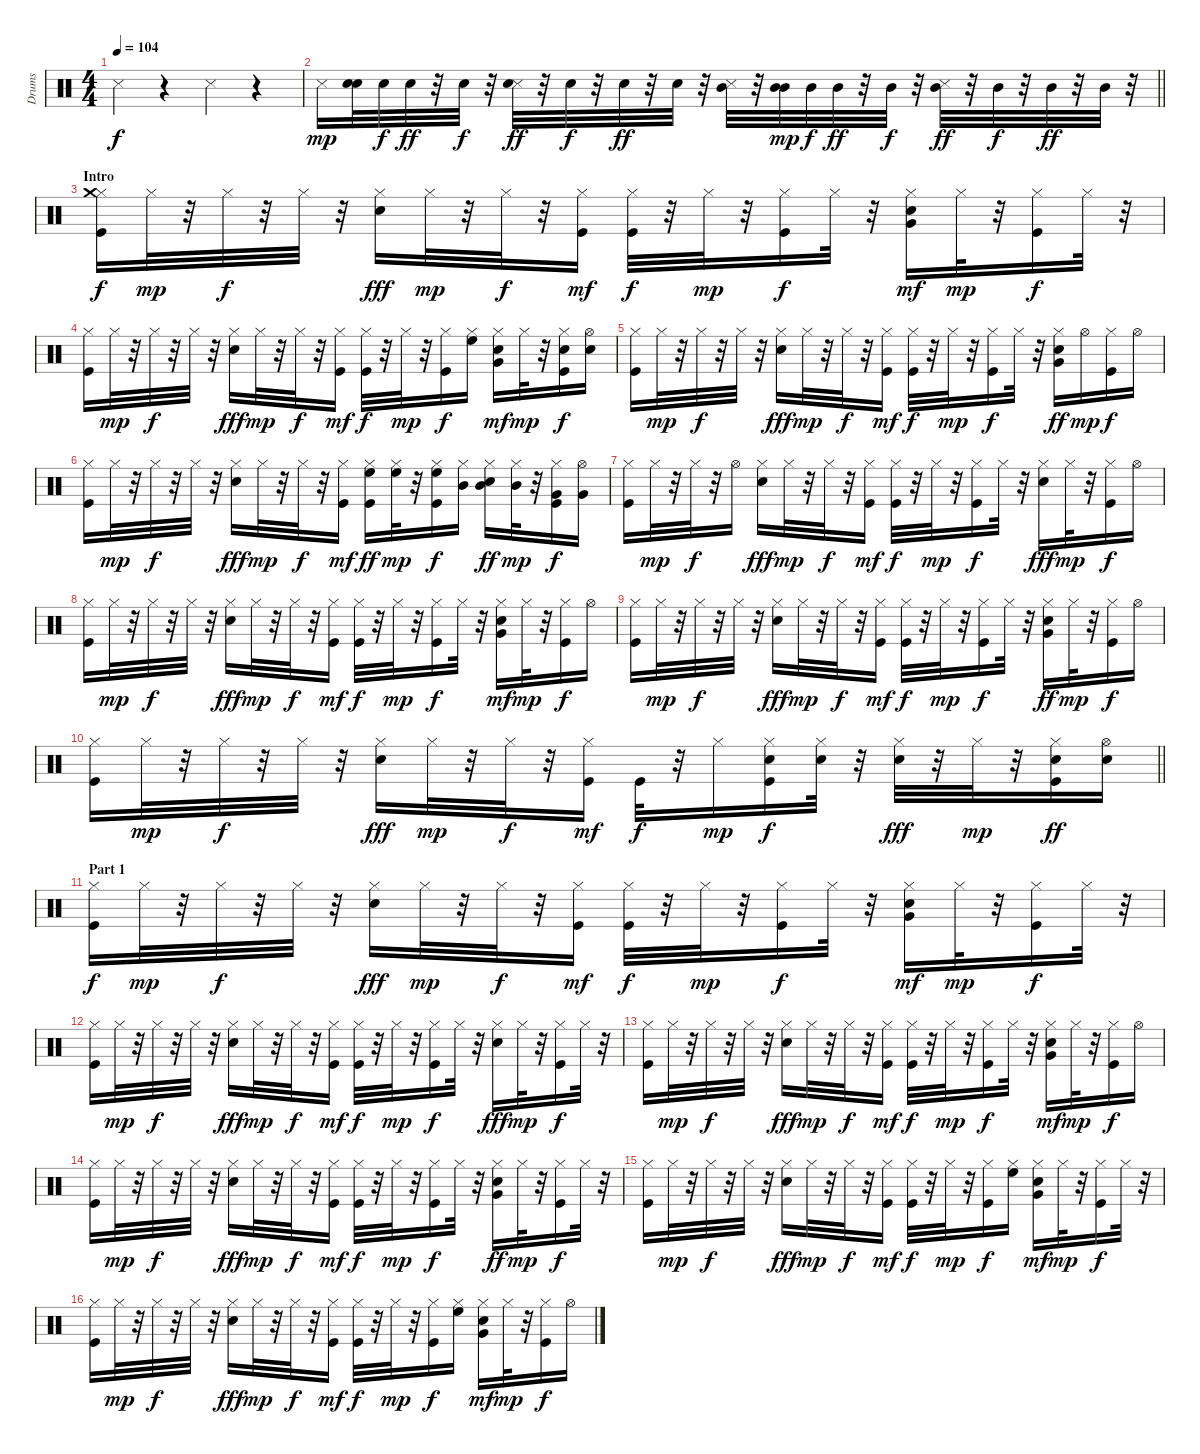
\track ("Drums   " "Drums   ") {instrument percussion}
\staff {score}
\articulation defaults
\ts (4 4)
\tempo 104
\clef neutral
\ks c "Metronome (hit)".4{dy f}
r.4 "Metronome (hit)".4 r.4 |
\barLineRight lightlight "Metronome (hit)".16{dy mp}
("Electric Snare (hit)" "Electric Snare (hit)").32 "Electric Snare (hit)".32{dy f} "Electric Snare (hit)".32{dy ff} r.32 "Electric Snare (hit)".32{dy f} r.32 ("Metronome (hit)" "Electric Snare (hit)").32{dy ff} r.32 "Electric Snare (hit)".32{dy f} r.32 "Electric Snare (hit)".32{dy ff} r.32 "Electric Snare (hit)".32 r.32 ("Metronome (hit)" "Mid Tom (hit)").32 r.32 ("Mid Tom (hit)" "Mid Tom (hit)").32{dy mp} "Mid Tom (hit)".32{dy f} "Mid Tom (hit)".32{dy ff} r.32 "Mid Tom (hit)".32{dy f} r.32 ("Metronome (hit)" "Mid Tom (hit)").32{dy ff} r.32 "Mid Tom (hit)".32{dy f} r.32 "Mid Tom (hit)".32{dy ff} r.32 "Mid Tom (hit)".32 r.32 |
\section ("" "Intro")
("Kick (hit)" "Hi-Hat (closed)" "Crash medium (hit)").16{dy f} "Hi-Hat (closed)".32{dy mp} r.32 "Hi-Hat (closed)".32{dy f} r.32 "Hi-Hat (closed)".32 r.32 ("Electric Snare (hit)" "Hi-Hat (closed)").16{dy fff} "Hi-Hat (closed)".32{dy mp} r.32 "Hi-Hat (closed)".32{dy f} r.32 ("Kick (hit)" "Hi-Hat (closed)").16{dy mf} ("Kick (hit)" "Hi-Hat (closed)").32{dy f} r.32 "Hi-Hat (closed)".32{dy mp} r.32 ("Kick (hit)" "Hi-Hat (closed)").16{dy f} "Hi-Hat (closed)".32 r.32 ("Electric Snare (hit)" "Hi-Hat (closed)" "Very Low Tom (hit)").16{dy mf} "Hi-Hat (closed)".32{dy mp} r.32 ("Kick (hit)" "Hi-Hat (closed)").16{dy f} "Hi-Hat (closed)".32 r.32 |
("Kick (hit)" "Hi-Hat (closed)").16 "Hi-Hat (closed)".32{dy mp} r.32 "Hi-Hat (closed)".32{dy f} r.32 "Hi-Hat (closed)".32 r.32 ("Electric Snare (hit)" "Hi-Hat (closed)").16{dy fff} "Hi-Hat (closed)".32{dy mp} r.32 "Hi-Hat (closed)".32{dy f} r.32 ("Kick (hit)" "Hi-Hat (closed)").16{dy mf} ("Kick (hit)" "Hi-Hat (closed)").32{dy f} r.32 "Hi-Hat (closed)".32{dy mp} r.32 ("Kick (hit)" "Hi-Hat (closed)").16{dy f} ("Hi-Hat (closed)" "High Floor Tom (hit)").16 ("Electric Snare (hit)" "Hi-Hat (closed)" "Very Low Tom (hit)").16{dy mf} "Hi-Hat (closed)".32{dy mp} r.32 ("Kick (hit)" "Electric Snare (hit)" "Hi-Hat (closed)").16{dy f} ("Electric Snare (hit)" "Hi-Hat (open)").16 |
("Kick (hit)" "Hi-Hat (closed)").16 "Hi-Hat (closed)".32{dy mp} r.32 "Hi-Hat (closed)".32{dy f} r.32 "Hi-Hat (closed)".32 r.32 ("Electric Snare (hit)" "Hi-Hat (closed)").16{dy fff} "Hi-Hat (closed)".32{dy mp} r.32 "Hi-Hat (closed)".32{dy f} r.32 ("Kick (hit)" "Hi-Hat (closed)").16{dy mf} ("Kick (hit)" "Hi-Hat (closed)").32{dy f} r.32 "Hi-Hat (closed)".32{dy mp} r.32 ("Kick (hit)" "Hi-Hat (closed)").16{dy f} "Hi-Hat (closed)".32 r.32 ("Electric Snare (hit)" "Hi-Hat (closed)" "Very Low Tom (hit)").16{dy ff} "Hi-Hat (open)".16{dy mp} ("Kick (hit)" "Hi-Hat (closed)").16{dy f} "Hi-Hat (open)".16 |
("Kick (hit)" "Hi-Hat (closed)").16 "Hi-Hat (closed)".32{dy mp} r.32 "Hi-Hat (closed)".32{dy f} r.32 "Hi-Hat (closed)".32 r.32 ("Electric Snare (hit)" "Hi-Hat (closed)").16{dy fff} "Hi-Hat (closed)".32{dy mp} r.32 "Hi-Hat (closed)".32{dy f} r.32 ("Kick (hit)" "Hi-Hat (closed)").16{dy mf} ("Kick (hit)" "Hi-Hat (closed)" "High Floor Tom (hit)").16{dy ff} ("Hi-Hat (closed)" "High Floor Tom (hit)").32{dy mp} r.32 ("Kick (hit)" "Hi-Hat (closed)" "High Floor Tom (hit)").16{dy f} ("Hi-Hat (closed)" "Mid Tom (hit)").16 ("Electric Snare (hit)" "Hi-Hat (closed)" "Mid Tom (hit)").16{dy ff} ("Hi-Hat (closed)" "Mid Tom (hit)").32{dy mp} r.32 ("Kick (hit)" "Hi-Hat (closed)" "Very Low Tom (hit)").16{dy f} ("Very Low Tom (hit)" "Hi-Hat (open)").16 |
("Kick (hit)" "Hi-Hat (closed)").16 "Hi-Hat (closed)".32{dy mp} r.32 "Hi-Hat (closed)".32{dy f} r.32 "Hi-Hat (open)".16 ("Electric Snare (hit)" "Hi-Hat (closed)").16{dy fff} "Hi-Hat (closed)".32{dy mp} r.32 "Hi-Hat (closed)".32{dy f} r.32 ("Kick (hit)" "Hi-Hat (closed)").16{dy mf} ("Kick (hit)" "Hi-Hat (closed)").32{dy f} r.32 "Hi-Hat (closed)".32{dy mp} r.32 ("Kick (hit)" "Hi-Hat (closed)").16{dy f} "Hi-Hat (closed)".32 r.32 ("Electric Snare (hit)" "Hi-Hat (closed)").16{dy fff} "Hi-Hat (closed)".32{dy mp} r.32 ("Kick (hit)" "Hi-Hat (closed)").16{dy f} "Hi-Hat (open)".16 |
("Kick (hit)" "Hi-Hat (closed)").16 "Hi-Hat (closed)".32{dy mp} r.32 "Hi-Hat (closed)".32{dy f} r.32 "Hi-Hat (closed)".32 r.32 ("Electric Snare (hit)" "Hi-Hat (closed)").16{dy fff} "Hi-Hat (closed)".32{dy mp} r.32 "Hi-Hat (closed)".32{dy f} r.32 ("Kick (hit)" "Hi-Hat (closed)").16{dy mf} ("Kick (hit)" "Hi-Hat (closed)").32{dy f} r.32 "Hi-Hat (closed)".32{dy mp} r.32 ("Kick (hit)" "Hi-Hat (closed)").16{dy f} "Hi-Hat (closed)".32 r.32 ("Electric Snare (hit)" "Hi-Hat (closed)" "Very Low Tom (hit)").16{dy mf} "Hi-Hat (closed)".32{dy mp} r.32 ("Kick (hit)" "Hi-Hat (closed)").16{dy f} "Hi-Hat (open)".16 |
("Kick (hit)" "Hi-Hat (closed)").16 "Hi-Hat (closed)".32{dy mp} r.32 "Hi-Hat (closed)".32{dy f} r.32 "Hi-Hat (closed)".32 r.32 ("Electric Snare (hit)" "Hi-Hat (closed)").16{dy fff} "Hi-Hat (closed)".32{dy mp} r.32 "Hi-Hat (closed)".32{dy f} r.32 ("Kick (hit)" "Hi-Hat (closed)").16{dy mf} ("Kick (hit)" "Hi-Hat (closed)").32{dy f} r.32 "Hi-Hat (closed)".32{dy mp} r.32 ("Kick (hit)" "Hi-Hat (closed)").16{dy f} "Hi-Hat (closed)".32 r.32 ("Electric Snare (hit)" "Hi-Hat (closed)" "Very Low Tom (hit)").16{dy ff} "Hi-Hat (closed)".32{dy mp} r.32 ("Kick (hit)" "Hi-Hat (closed)").16{dy f} "Hi-Hat (open)".16 |
\barLineRight lightlight
("Kick (hit)" "Hi-Hat (closed)").16 "Hi-Hat (closed)".32{dy mp} r.32 "Hi-Hat (closed)".32{dy f} r.32 "Hi-Hat (closed)".32 r.32 ("Electric Snare (hit)" "Hi-Hat (closed)").16{dy fff} "Hi-Hat (closed)".32{dy mp} r.32 "Hi-Hat (closed)".32{dy f} r.32 ("Kick (hit)" "Hi-Hat (closed)").16{dy mf} "Kick (hit)".32{dy f} r.32 "Hi-Hat (closed)".16{dy mp} ("Kick (hit)" "Electric Snare (hit)" "Hi-Hat (closed)").16{dy f} ("Electric Snare (hit)" "Hi-Hat (closed)").32 r.32 ("Electric Snare (hit)" "Hi-Hat (closed)").32{dy fff} r.32 "Hi-Hat (closed)".32{dy mp} r.32 ("Kick (hit)" "Electric Snare (hit)" "Hi-Hat (closed)").16{dy ff} ("Electric Snare (hit)" "Hi-Hat (open)").16 |
\section ("" "Part 1")
("Kick (hit)" "Hi-Hat (closed)").16{dy f} "Hi-Hat (closed)".32{dy mp} r.32 "Hi-Hat (closed)".32{dy f} r.32 "Hi-Hat (closed)".32 r.32 ("Electric Snare (hit)" "Hi-Hat (closed)").16{dy fff} "Hi-Hat (closed)".32{dy mp} r.32 "Hi-Hat (closed)".32{dy f} r.32 ("Kick (hit)" "Hi-Hat (closed)").16{dy mf} ("Kick (hit)" "Hi-Hat (closed)").32{dy f} r.32 "Hi-Hat (closed)".32{dy mp} r.32 ("Kick (hit)" "Hi-Hat (closed)").16{dy f} "Hi-Hat (closed)".32 r.32 ("Electric Snare (hit)" "Hi-Hat (closed)" "Very Low Tom (hit)").16{dy mf} "Hi-Hat (closed)".32{dy mp} r.32 ("Kick (hit)" "Hi-Hat (closed)").16{dy f} "Hi-Hat (closed)".32 r.32 |
("Kick (hit)" "Hi-Hat (closed)").16 "Hi-Hat (closed)".32{dy mp} r.32 "Hi-Hat (closed)".32{dy f} r.32 "Hi-Hat (closed)".32 r.32 ("Electric Snare (hit)" "Hi-Hat (closed)").16{dy fff} "Hi-Hat (closed)".32{dy mp} r.32 "Hi-Hat (closed)".32{dy f} r.32 ("Kick (hit)" "Hi-Hat (closed)").16{dy mf} ("Kick (hit)" "Hi-Hat (closed)").32{dy f} r.32 "Hi-Hat (closed)".32{dy mp} r.32 ("Kick (hit)" "Hi-Hat (closed)").16{dy f} "Hi-Hat (closed)".32 r.32 ("Electric Snare (hit)" "Hi-Hat (closed)").16{dy fff} "Hi-Hat (closed)".32{dy mp} r.32 ("Kick (hit)" "Hi-Hat (closed)").16{dy f} "Hi-Hat (closed)".32 r.32 |
("Kick (hit)" "Hi-Hat (closed)").16 "Hi-Hat (closed)".32{dy mp} r.32 "Hi-Hat (closed)".32{dy f} r.32 "Hi-Hat (closed)".32 r.32 ("Electric Snare (hit)" "Hi-Hat (closed)").16{dy fff} "Hi-Hat (closed)".32{dy mp} r.32 "Hi-Hat (closed)".32{dy f} r.32 ("Kick (hit)" "Hi-Hat (closed)").16{dy mf} ("Kick (hit)" "Hi-Hat (closed)").32{dy f} r.32 "Hi-Hat (closed)".32{dy mp} r.32 ("Kick (hit)" "Hi-Hat (closed)").16{dy f} "Hi-Hat (closed)".32 r.32 ("Electric Snare (hit)" "Hi-Hat (closed)" "Very Low Tom (hit)").16{dy mf} "Hi-Hat (closed)".32{dy mp} r.32 ("Kick (hit)" "Hi-Hat (closed)").16{dy f} "Hi-Hat (open)".16 |
("Kick (hit)" "Hi-Hat (closed)").16 "Hi-Hat (closed)".32{dy mp} r.32 "Hi-Hat (closed)".32{dy f} r.32 "Hi-Hat (closed)".32 r.32 ("Electric Snare (hit)" "Hi-Hat (closed)").16{dy fff} "Hi-Hat (closed)".32{dy mp} r.32 "Hi-Hat (closed)".32{dy f} r.32 ("Kick (hit)" "Hi-Hat (closed)").16{dy mf} ("Kick (hit)" "Hi-Hat (closed)").32{dy f} r.32 "Hi-Hat (closed)".32{dy mp} r.32 ("Kick (hit)" "Hi-Hat (closed)").16{dy f} "Hi-Hat (closed)".32 r.32 ("Electric Snare (hit)" "Hi-Hat (closed)" "Very Low Tom (hit)").16{dy ff} "Hi-Hat (closed)".32{dy mp} r.32 ("Kick (hit)" "Hi-Hat (closed)").16{dy f} "Hi-Hat (closed)".32 r.32 |
("Kick (hit)" "Hi-Hat (closed)").16 "Hi-Hat (closed)".32{dy mp} r.32 "Hi-Hat (closed)".32{dy f} r.32 "Hi-Hat (closed)".32 r.32 ("Electric Snare (hit)" "Hi-Hat (closed)").16{dy fff} "Hi-Hat (closed)".32{dy mp} r.32 "Hi-Hat (closed)".32{dy f} r.32 ("Kick (hit)" "Hi-Hat (closed)").16{dy mf} ("Kick (hit)" "Hi-Hat (closed)").32{dy f} r.32 "Hi-Hat (closed)".32{dy mp} r.32 ("Kick (hit)" "Hi-Hat (closed)").16{dy f} ("Hi-Hat (closed)" "High Floor Tom (hit)").16 ("Electric Snare (hit)" "Hi-Hat (closed)" "Very Low Tom (hit)").16{dy mf} "Hi-Hat (closed)".32{dy mp} r.32 ("Kick (hit)" "Hi-Hat (closed)").16{dy f} "Hi-Hat (closed)".32 r.32 |
("Kick (hit)" "Hi-Hat (closed)").16 "Hi-Hat (closed)".32{dy mp} r.32 "Hi-Hat (closed)".32{dy f} r.32 "Hi-Hat (closed)".32 r.32 ("Electric Snare (hit)" "Hi-Hat (closed)").16{dy fff} "Hi-Hat (closed)".32{dy mp} r.32 "Hi-Hat (closed)".32{dy f} r.32 ("Kick (hit)" "Hi-Hat (closed)").16{dy mf} ("Kick (hit)" "Hi-Hat (closed)").32{dy f} r.32 "Hi-Hat (closed)".32{dy mp} r.32 ("Kick (hit)" "Hi-Hat (closed)").16{dy f} ("Hi-Hat (closed)" "High Floor Tom (hit)").16 ("Electric Snare (hit)" "Hi-Hat (closed)" "Very Low Tom (hit)").16{dy mf} "Hi-Hat (closed)".32{dy mp} r.32 ("Kick (hit)" "Hi-Hat (closed)").16{dy f} "Hi-Hat (open)".16
